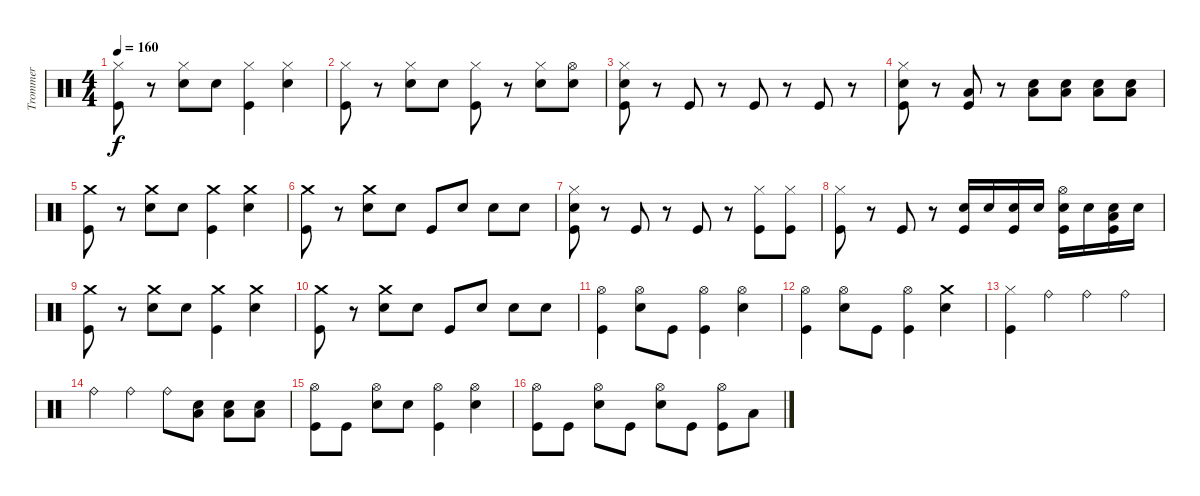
\track ("Trommer" "Trommer") {instrument percussion}
\staff {score}
\articulation defaults
\ts (4 4)
\tempo 160
\clef neutral
\ks c
("Hi-Hat (closed)" "Kick (hit)").8{dy f} r.8 ("Hi-Hat (closed)" "Snare (hit) 2").8 "Snare (hit) 2".8 ("Hi-Hat (closed)" "Kick (hit)").4 ("Hi-Hat (closed)" "Snare (hit) 2").4 |
("Hi-Hat (closed)" "Kick (hit)").8 r.8 ("Hi-Hat (closed)" "Snare (hit) 2").8 "Snare (hit) 2".8 ("Hi-Hat (closed)" "Kick (hit)").8 r.8 ("Hi-Hat (closed)" "Snare (hit) 2").8 ("Hi-Hat (open)" "Snare (hit) 2").8 |
("Hi-Hat (closed)" "Snare (hit) 2" "Kick (hit)").8 r.8 "Kick (hit)".8 r.8 "Kick (hit)".8 r.8 "Kick (hit)".8 r.8 |
("Hi-Hat (closed)" "Snare (hit) 2" "Kick (hit)").8 r.8 ("Low Floor Tom (hit)" "Kick (hit)").8 r.8 ("Snare (hit) 2" "Low Floor Tom (hit)").8 ("Snare (hit) 2" "Low Floor Tom (hit)").8 ("Snare (hit) 2" "Low Floor Tom (hit)").8 ("Snare (hit) 2" "Low Floor Tom (hit)").8 |
("Crash medium (hit)" "Kick (hit)").8 r.8 ("Crash medium (hit)" "Snare (hit) 2").8 "Snare (hit) 2".8 ("Crash medium (hit)" "Kick (hit)").4 ("Crash medium (hit)" "Snare (hit) 2").4 |
("Crash medium (hit)" "Kick (hit)").8 r.8 ("Crash medium (hit)" "Snare (hit) 2").8 "Snare (hit) 2".8 "Kick (hit)".8 "Snare (hit) 2".8 "Snare (hit) 2".8 "Snare (hit) 2".8 |
("Hi-Hat (closed)" "Snare (hit) 2" "Kick (hit)").8 r.8 "Kick (hit)".8 r.8 "Kick (hit)".8 r.8 ("Hi-Hat (closed)" "Kick (hit)").8 ("Hi-Hat (closed)" "Kick (hit)").8 |
("Hi-Hat (closed)" "Kick (hit)").8 r.8 "Kick (hit)".8 r.8 ("Snare (hit) 2" "Kick (hit)").16 "Snare (hit) 2".16 ("Snare (hit) 2" "Kick (hit)").16 "Snare (hit) 2".16 ("Hi-Hat (open)" "Snare (hit) 2" "Kick (hit)").16 "Snare (hit) 2".16 ("Snare (hit) 2" "Low Floor Tom (hit)" "Kick (hit)").16 "Snare (hit) 2".16 |
("Crash medium (hit)" "Kick (hit)").8 r.8 ("Crash medium (hit)" "Snare (hit) 2").8 "Snare (hit) 2".8 ("Crash medium (hit)" "Kick (hit)").4 ("Crash medium (hit)" "Snare (hit) 2").4 |
("Crash medium (hit)" "Kick (hit)").8 r.8 ("Crash medium (hit)" "Snare (hit) 2").8 "Snare (hit) 2".8 "Kick (hit)".8 "Snare (hit) 2".8 "Snare (hit) 2".8 "Snare (hit) 2".8 |
("Hi-Hat (open)" "Kick (hit)").4 ("Hi-Hat (open)" "Snare (hit) 2").8 "Kick (hit)".8 ("Hi-Hat (open)" "Kick (hit)").4 ("Hi-Hat (open)" "Snare (hit) 2").4 |
("Hi-Hat (open)" "Kick (hit)").4 ("Hi-Hat (open)" "Snare (hit) 2").8 "Kick (hit)".8 ("Hi-Hat (open)" "Kick (hit)").4 ("Crash medium (hit)" "Snare (hit) 2").4 |
("Hi-Hat (closed)" "Kick (hit)").4 "Ride (bell)".4 "Ride (bell)".4 "Ride (bell)".4 |
"Ride (bell)".4 "Ride (bell)".4 "Ride (bell)".8 ("Snare (hit) 2" "Low Floor Tom (hit)").8 ("Snare (hit) 2" "Low Floor Tom (hit)").8 ("Snare (hit) 2" "Low Floor Tom (hit)").8 |
("Hi-Hat (open)" "Kick (hit)").8 "Kick (hit)".8 ("Hi-Hat (open)" "Snare (hit) 2").8 "Snare (hit) 2".8 ("Hi-Hat (open)" "Kick (hit)").4 ("Hi-Hat (open)" "Snare (hit) 2").4 |
("Hi-Hat (open)" "Kick (hit)").8 "Kick (hit)".8 ("Hi-Hat (open)" "Snare (hit) 2").8 "Kick (hit)".8 ("Hi-Hat (open)" "Snare (hit) 2").8 "Kick (hit)".8 ("Hi-Hat (open)" "Kick (hit)").8 "Low Floor Tom (hit)".8
